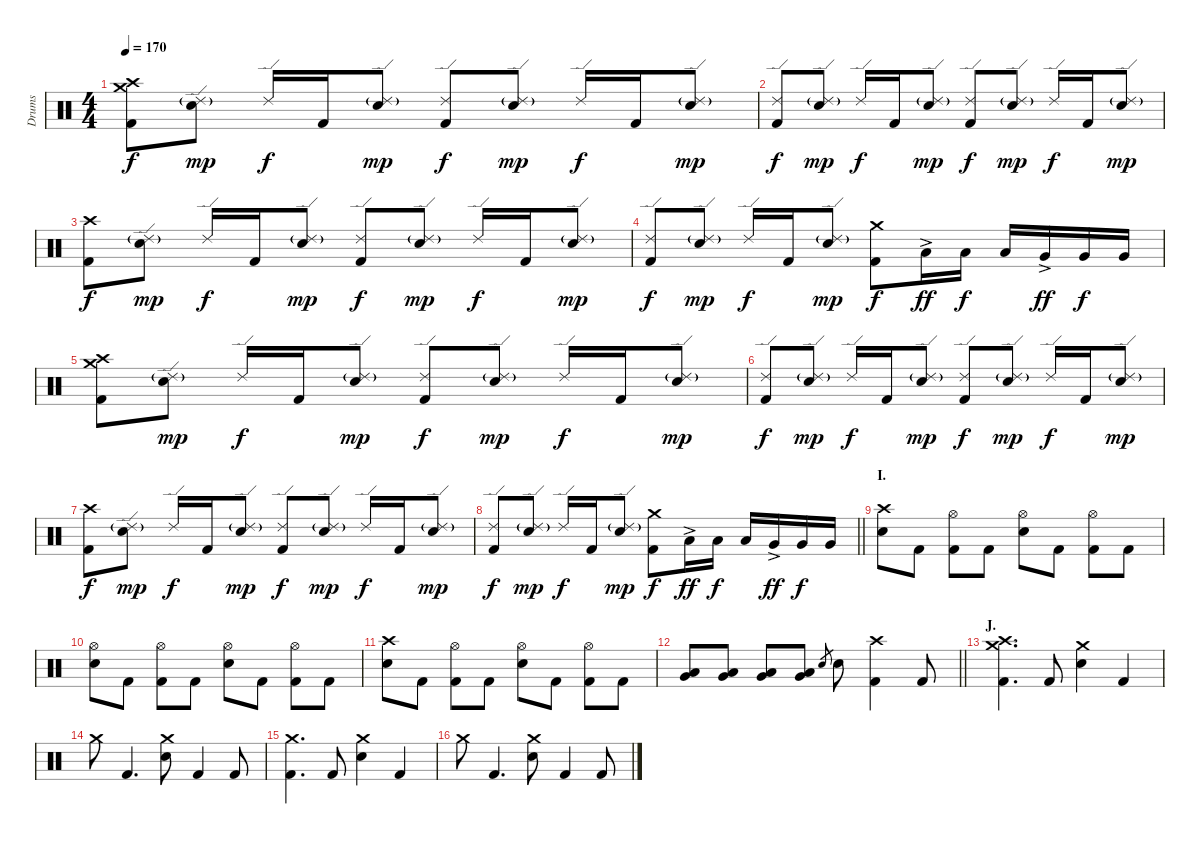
\track ("Drums" "Drums") {instrument percussion}
\staff {score}
\articulation defaults
\ts (4 4)
\tempo 170
\clef neutral
\ks c
("Crash medium (hit)" "Crash high (hit)" "Kick (hit) 2").8{dy f} ("Ride (edge) 2"{g} "Electric Snare (hit)").8{dy mp} "Ride (edge) 2".16{dy f} "Kick (hit) 2".16 ("Ride (edge) 2"{g} "Electric Snare (hit)").8{dy mp} ("Ride (edge) 2" "Kick (hit) 2").8{dy f} ("Ride (edge) 2"{g} "Electric Snare (hit)").8{dy mp} "Ride (edge) 2".16{dy f} "Kick (hit) 2".16 ("Ride (edge) 2"{g} "Electric Snare (hit)").8{dy mp} |
("Ride (edge) 2" "Kick (hit) 2").8{dy f} ("Ride (edge) 2"{g} "Electric Snare (hit)").8{dy mp} "Ride (edge) 2".16{dy f} "Kick (hit) 2".16 ("Ride (edge) 2"{g} "Electric Snare (hit)").8{dy mp} ("Ride (edge) 2" "Kick (hit) 2").8{dy f} ("Ride (edge) 2"{g} "Electric Snare (hit)").8{dy mp} "Ride (edge) 2".16{dy f} "Kick (hit) 2".16 ("Ride (edge) 2"{g} "Electric Snare (hit)").8{dy mp} |
("Crash high (hit)" "Kick (hit) 2").8{dy f} ("Ride (edge) 2"{g} "Electric Snare (hit)").8{dy mp} "Ride (edge) 2".16{dy f} "Kick (hit) 2".16 ("Ride (edge) 2"{g} "Electric Snare (hit)").8{dy mp} ("Ride (edge) 2" "Kick (hit) 2").8{dy f} ("Ride (edge) 2"{g} "Electric Snare (hit)").8{dy mp} "Ride (edge) 2".16{dy f} "Kick (hit) 2".16 ("Ride (edge) 2"{g} "Electric Snare (hit)").8{dy mp} |
("Ride (edge) 2" "Kick (hit) 2").8{dy f} ("Ride (edge) 2"{g} "Electric Snare (hit)").8{dy mp} "Ride (edge) 2".16{dy f} "Kick (hit) 2".16 ("Ride (edge) 2"{g} "Electric Snare (hit)").8{dy mp} ("Crash medium (hit)" "Kick (hit) 2").8{dy f} "Low Tom (hit)"{ac}.16{dy ff} "Low Tom (hit)".16{dy f} "Low Tom (hit)".16 "Very Low Tom (hit)"{ac}.16{dy ff} "Very Low Tom (hit)".16{dy f} "Very Low Tom (hit)".16 |
("Crash medium (hit)" "Crash high (hit)" "Kick (hit) 2").8 ("Ride (edge) 2"{g} "Electric Snare (hit)").8{dy mp} "Ride (edge) 2".16{dy f} "Kick (hit) 2".16 ("Ride (edge) 2"{g} "Electric Snare (hit)").8{dy mp} ("Ride (edge) 2" "Kick (hit) 2").8{dy f} ("Ride (edge) 2"{g} "Electric Snare (hit)").8{dy mp} "Ride (edge) 2".16{dy f} "Kick (hit) 2".16 ("Ride (edge) 2"{g} "Electric Snare (hit)").8{dy mp} |
("Ride (edge) 2" "Kick (hit) 2").8{dy f} ("Ride (edge) 2"{g} "Electric Snare (hit)").8{dy mp} "Ride (edge) 2".16{dy f} "Kick (hit) 2".16 ("Ride (edge) 2"{g} "Electric Snare (hit)").8{dy mp} ("Ride (edge) 2" "Kick (hit) 2").8{dy f} ("Ride (edge) 2"{g} "Electric Snare (hit)").8{dy mp} "Ride (edge) 2".16{dy f} "Kick (hit) 2".16 ("Ride (edge) 2"{g} "Electric Snare (hit)").8{dy mp} |
("Crash high (hit)" "Kick (hit) 2").8{dy f} ("Ride (edge) 2"{g} "Electric Snare (hit)").8{dy mp} "Ride (edge) 2".16{dy f} "Kick (hit) 2".16 ("Ride (edge) 2"{g} "Electric Snare (hit)").8{dy mp} ("Ride (edge) 2" "Kick (hit) 2").8{dy f} ("Ride (edge) 2"{g} "Electric Snare (hit)").8{dy mp} "Ride (edge) 2".16{dy f} "Kick (hit) 2".16 ("Ride (edge) 2"{g} "Electric Snare (hit)").8{dy mp} |
\barLineRight lightlight
("Ride (edge) 2" "Kick (hit) 2").8{dy f} ("Ride (edge) 2"{g} "Electric Snare (hit)").8{dy mp} "Ride (edge) 2".16{dy f} "Kick (hit) 2".16 ("Ride (edge) 2"{g} "Electric Snare (hit)").8{dy mp} ("Crash medium (hit)" "Kick (hit) 2").8{dy f} "Low Tom (hit)"{ac}.16{dy ff} "Low Tom (hit)".16{dy f} "Low Tom (hit)".16 "Very Low Tom (hit)"{ac}.16{dy ff} "Very Low Tom (hit)".16{dy f} "Very Low Tom (hit)".16 |
\section ("" "I.")
("Crash high (hit)" "Electric Snare (hit)").8 "Kick (hit) 2".8 ("Hi-Hat (open)" "Kick (hit) 2").8 "Kick (hit) 2".8 ("Hi-Hat (open)" "Electric Snare (hit)").8 "Kick (hit) 2".8 ("Hi-Hat (open)" "Kick (hit) 2").8 "Kick (hit) 2".8 |
("Hi-Hat (open)" "Electric Snare (hit)").8 "Kick (hit) 2".8 ("Hi-Hat (open)" "Kick (hit) 2").8 "Kick (hit) 2".8 ("Hi-Hat (open)" "Electric Snare (hit)").8 "Kick (hit) 2".8 ("Hi-Hat (open)" "Kick (hit) 2").8 "Kick (hit) 2".8 |
("Crash high (hit)" "Electric Snare (hit)").8 "Kick (hit) 2".8 ("Hi-Hat (open)" "Kick (hit) 2").8 "Kick (hit) 2".8 ("Hi-Hat (open)" "Electric Snare (hit)").8 "Kick (hit) 2".8 ("Hi-Hat (open)" "Kick (hit) 2").8 "Kick (hit) 2".8 |
\barLineRight lightlight
("Low Tom (hit)" "Very Low Tom (hit)").8{bu 120} ("Low Tom (hit)" "Very Low Tom (hit)").8{bu 120} ("Low Tom (hit)" "Very Low Tom (hit)").8{bu 120} ("Low Tom (hit)" "Very Low Tom (hit)").8{bu 120} "Electric Snare (hit)".8{gr} "Electric Snare (hit)".8 ("Crash high (hit)" "Kick (hit) 2").4 "Kick (hit) 2".8 |
\section ("" "J.")
("Crash medium (hit)" "Crash high (hit)" "Kick (hit) 2").4{d} "Kick (hit) 2".8 ("Crash medium (hit)" "Electric Snare (hit)").4 "Kick (hit) 2".4 |
"Crash medium (hit)".8 "Kick (hit) 2".4{d} ("Crash medium (hit)" "Electric Snare (hit)").8 "Kick (hit) 2".4 "Kick (hit) 2".8 |
("Crash medium (hit)" "Kick (hit) 2").4{d} "Kick (hit) 2".8 ("Crash medium (hit)" "Electric Snare (hit)").4 "Kick (hit) 2".4 |
"Crash medium (hit)".8 "Kick (hit) 2".4{d} ("Crash medium (hit)" "Electric Snare (hit)").8 "Kick (hit) 2".4 "Kick (hit) 2".8
